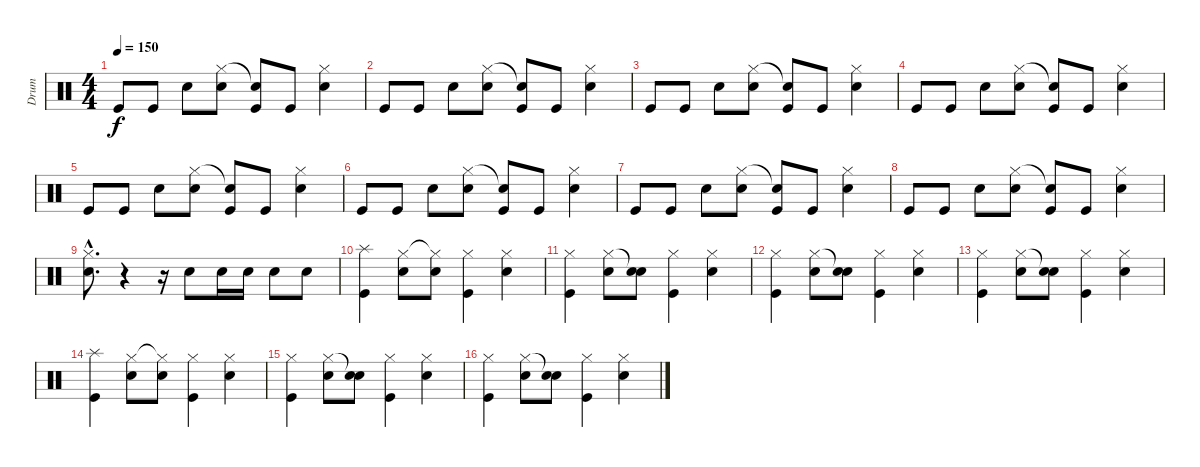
\track ("Drum" "Drum") {instrument percussion}
\staff {score}
\articulation defaults
\ts (4 4)
\tempo 150
\clef neutral
\ks c "Kick (hit)".8{dy f} "Kick (hit)".8 "Snare (hit) 2".8
("Hi-Hat (closed)" "Snare (hit) 2").8 ("Snare (hit)"{t} "Kick (hit)").8 "Kick (hit)".8 ("Hi-Hat (closed)" "Snare (hit) 2").4 |
"Kick (hit)".8 "Kick (hit)".8 "Snare (hit) 2".8 ("Hi-Hat (closed)" "Snare (hit) 2").8 ("Snare (hit)"{t} "Kick (hit)").8 "Kick (hit)".8 ("Hi-Hat (closed)" "Snare (hit) 2").4 |
"Kick (hit)".8 "Kick (hit)".8 "Snare (hit) 2".8 ("Hi-Hat (closed)" "Snare (hit) 2").8 ("Snare (hit)"{t} "Kick (hit)").8 "Kick (hit)".8 ("Hi-Hat (closed)" "Snare (hit) 2").4 |
"Kick (hit)".8 "Kick (hit)".8 "Snare (hit) 2".8 ("Hi-Hat (closed)" "Snare (hit) 2").8 ("Snare (hit)"{t} "Kick (hit)").8 "Kick (hit)".8 ("Hi-Hat (closed)" "Snare (hit) 2").4 |
"Kick (hit)".8 "Kick (hit)".8 "Snare (hit) 2".8 ("Hi-Hat (closed)" "Snare (hit) 2").8 ("Snare (hit)"{t} "Kick (hit)").8 "Kick (hit)".8 ("Hi-Hat (closed)" "Snare (hit) 2").4 |
"Kick (hit)".8 "Kick (hit)".8 "Snare (hit) 2".8 ("Hi-Hat (closed)" "Snare (hit) 2").8 ("Snare (hit)"{t} "Kick (hit)").8 "Kick (hit)".8 ("Hi-Hat (closed)" "Snare (hit) 2").4 |
"Kick (hit)".8 "Kick (hit)".8 "Snare (hit) 2".8 ("Hi-Hat (closed)" "Snare (hit) 2").8 ("Snare (hit)"{t} "Kick (hit)").8 "Kick (hit)".8 ("Hi-Hat (closed)" "Snare (hit) 2").4 |
"Kick (hit)".8 "Kick (hit)".8 "Snare (hit) 2".8 ("Hi-Hat (closed)" "Snare (hit) 2").8 ("Snare (hit)"{t} "Kick (hit)").8 "Kick (hit)".8 ("Hi-Hat (closed)" "Snare (hit) 2").4 |
("Hi-Hat (closed)"{hac} "Snare (hit) 2"{hac}).8{d} r.4 r.16 "Snare (hit) 2".8 "Snare (hit) 2".16 "Snare (hit) 2".16 "Snare (hit) 2".8 "Snare (hit) 2".8 |
("Splash (hit)" "Kick (hit)").4 ("Hi-Hat (closed)" "Snare (hit) 2").8 ("Hi-Hat (closed)"{t} "Snare (hit) 2").8 ("Hi-Hat (closed)" "Kick (hit)").4 ("Hi-Hat (closed)" "Snare (hit) 2").4 |
("Hi-Hat (closed)" "Kick (hit)").4 ("Hi-Hat (closed)" "Snare (hit) 2").8 ("Snare (hit)"{t} "Snare (hit) 2").8 ("Hi-Hat (closed)" "Kick (hit)").4 ("Hi-Hat (closed)" "Snare (hit) 2").4 |
("Hi-Hat (closed)" "Kick (hit)").4 ("Hi-Hat (closed)" "Snare (hit) 2").8 ("Snare (hit)"{t} "Snare (hit) 2").8 ("Hi-Hat (closed)" "Kick (hit)").4 ("Hi-Hat (closed)" "Snare (hit) 2").4 |
("Hi-Hat (closed)" "Kick (hit)").4 ("Hi-Hat (closed)" "Snare (hit) 2").8 ("Snare (hit)"{t} "Snare (hit) 2").8 ("Hi-Hat (closed)" "Kick (hit)").4 ("Hi-Hat (closed)" "Snare (hit) 2").4 |
("Splash (hit)" "Kick (hit)").4 ("Hi-Hat (closed)" "Snare (hit) 2").8 ("Hi-Hat (closed)"{t} "Snare (hit) 2").8 ("Hi-Hat (closed)" "Kick (hit)").4 ("Hi-Hat (closed)" "Snare (hit) 2").4 |
("Hi-Hat (closed)" "Kick (hit)").4 ("Hi-Hat (closed)" "Snare (hit) 2").8 ("Snare (hit)"{t} "Snare (hit) 2").8 ("Hi-Hat (closed)" "Kick (hit)").4 ("Hi-Hat (closed)" "Snare (hit) 2").4 |
("Hi-Hat (closed)" "Kick (hit)").4 ("Hi-Hat (closed)" "Snare (hit) 2").8 ("Snare (hit)"{t} "Snare (hit) 2").8 ("Hi-Hat (closed)" "Kick (hit)").4 ("Hi-Hat (closed)" "Snare (hit) 2").4
